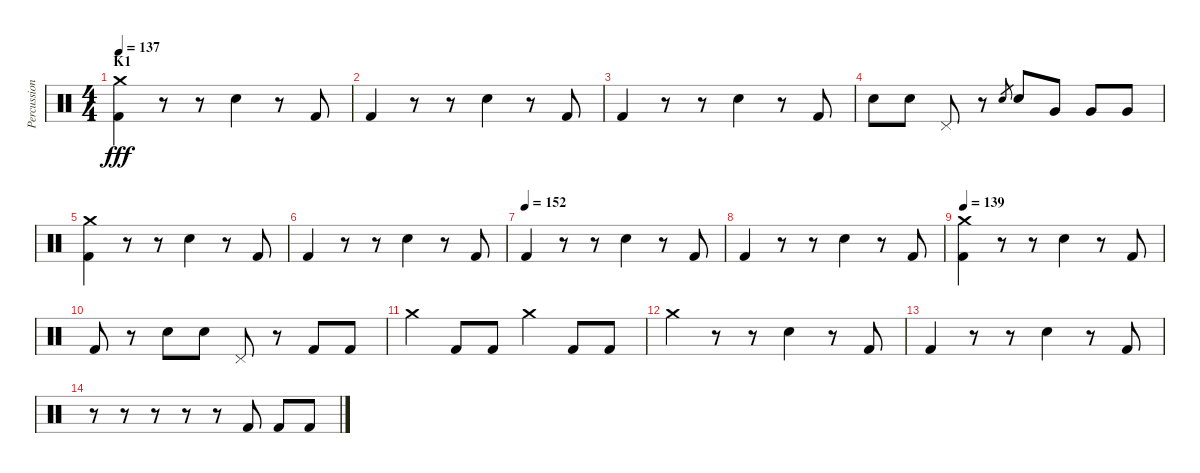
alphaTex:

\track ("Percussion" "Percussion") {instrument percussion}
\staff {score}
\articulation defaults
\ts (4 4)
\section ("" "K1")
\tempo 137
\clef neutral
\ks c
("Kick (hit) 2" "Crash medium (hit)").4{dy fff} r.8 r.8 "Electric Snare (hit)".4 r.8 "Kick (hit) 2".8 |
"Kick (hit) 2".4 r.8 r.8 "Electric Snare (hit)".4 r.8 "Kick (hit) 2".8 |
"Kick (hit) 2".4 r.8 r.8 "Electric Snare (hit)".4 r.8 "Kick (hit) 2".8 |
"Electric Snare (hit)".8 "Electric Snare (hit)".8 "Pedal Hi-Hat (hit)".8 r.8 "Electric Snare (hit)".8{gr} "Electric Snare (hit)".8 "Very Low Tom (hit)".8 "Very Low Tom (hit)".8 "Very Low Tom (hit)".8 |
("Kick (hit) 2" "Crash medium (hit)").4 r.8 r.8 "Electric Snare (hit)".4 r.8 "Kick (hit) 2".8 |
"Kick (hit) 2".4 r.8 r.8 "Electric Snare (hit)".4 r.8 "Kick (hit) 2".8 |
\tempo (152)
"Kick (hit) 2".4 r.8 r.8 "Electric Snare (hit)".4 r.8 "Kick (hit) 2".8 |
"Kick (hit) 2".4 r.8 r.8 "Electric Snare (hit)".4 r.8 "Kick (hit) 2".8 |
\tempo 139
("Kick (hit) 2" "Crash medium (hit)").4 r.8 r.8 "Electric Snare (hit)".4 r.8 "Kick (hit) 2".8 |
"Kick (hit) 2".8 r.8 "Electric Snare (hit)".8 "Electric Snare (hit)".8 "Pedal Hi-Hat (hit)".8 r.8 "Kick (hit) 2".8 "Kick (hit) 2".8 |
"Crash medium (hit)".4 "Kick (hit) 2".8 "Kick (hit) 2".8 "Crash medium (hit)".4 "Kick (hit) 2".8 "Kick (hit) 2".8 |
"Crash medium (hit)".4 r.8 r.8 "Electric Snare (hit)".4 r.8 "Kick (hit) 2".8 |
"Kick (hit) 2".4 r.8 r.8 "Electric Snare (hit)".4 r.8 "Kick (hit) 2".8 |
r.8 r.8 r.8 r.8 r.8 "Kick (hit) 2".8 "Kick (hit) 2".8 "Kick (hit) 2".8
